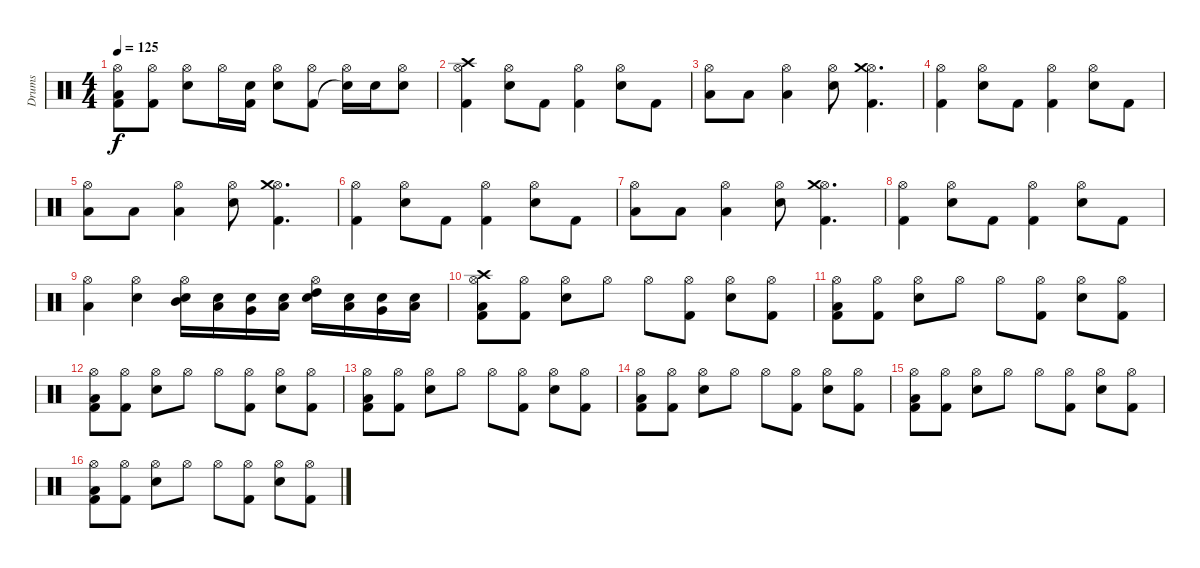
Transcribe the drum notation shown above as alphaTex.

\track ("Drums" "Drums") {instrument percussion}
\staff {score}
\articulation defaults
\ts (4 4)
\tempo 125
\clef neutral
\ks c
("Hi-Hat (open)" "Low Tom (hit)" "Kick (hit) 2").8{dy f} ("Hi-Hat (open)" "Kick (hit) 2").8 ("Hi-Hat (open)" "Snare (hit) 2").8 "Hi-Hat (open)".16 ("Snare (hit) 2" "Kick (hit) 2").16 ("Hi-Hat (open)" "Snare (hit) 2").8 ("Hi-Hat (open)" "Kick (hit) 2").8 ("Hi-Hat (open)" "Snare (hit)"{t}).16 "Snare (hit) 2".16 ("Hi-Hat (open)" "Snare (hit) 2").8 |
("Hi-Hat (open)" "Crash high (hit)" "Kick (hit) 2").4 ("Hi-Hat (open)" "Snare (hit) 2").8 "Kick (hit) 2".8 ("Hi-Hat (open)" "Kick (hit) 2").4 ("Hi-Hat (open)" "Snare (hit) 2").8 "Kick (hit) 2".8 |
("Hi-Hat (open)" "Low Tom (hit)").8 "Low Tom (hit)".8 ("Hi-Hat (open)" "Low Tom (hit)").4 ("Hi-Hat (open)" "Snare (hit) 2").8 ("Hi-Hat (open)" "Crash medium (hit)" "Kick (hit) 2").4{d} |
("Hi-Hat (open)" "Kick (hit) 2").4 ("Hi-Hat (open)" "Snare (hit) 2").8 "Kick (hit) 2".8 ("Hi-Hat (open)" "Kick (hit) 2").4 ("Hi-Hat (open)" "Snare (hit) 2").8 "Kick (hit) 2".8 |
("Hi-Hat (open)" "Low Tom (hit)").8 "Low Tom (hit)".8 ("Hi-Hat (open)" "Low Tom (hit)").4 ("Hi-Hat (open)" "Snare (hit) 2").8 ("Hi-Hat (open)" "Crash medium (hit)" "Kick (hit) 2").4{d} |
("Hi-Hat (open)" "Kick (hit) 2").4 ("Hi-Hat (open)" "Snare (hit) 2").8 "Kick (hit) 2".8 ("Hi-Hat (open)" "Kick (hit) 2").4 ("Hi-Hat (open)" "Snare (hit) 2").8 "Kick (hit) 2".8 |
("Hi-Hat (open)" "Low Tom (hit)").8 "Low Tom (hit)".8 ("Hi-Hat (open)" "Low Tom (hit)").4 ("Hi-Hat (open)" "Snare (hit) 2").8 ("Hi-Hat (open)" "Crash medium (hit)" "Kick (hit) 2").4{d} |
("Hi-Hat (open)" "Kick (hit) 2").4 ("Hi-Hat (open)" "Snare (hit) 2").8 "Kick (hit) 2".8 ("Hi-Hat (open)" "Kick (hit) 2").4 ("Hi-Hat (open)" "Snare (hit) 2").8 "Kick (hit) 2".8 |
("Hi-Hat (open)" "Low Tom (hit)").4 ("Hi-Hat (open)" "Snare (hit) 2").4 ("Hi-Hat (open)" "Electric Snare (hit)" "Mid Tom (hit)").16 ("Electric Snare (hit)" "Low Tom (hit)").16 ("Electric Snare (hit)" "Very Low Tom (hit)").16 ("Electric Snare (hit)" "Low Floor Tom (hit)").16 ("Hi-Hat (open)" "Electric Snare (hit)" "High Tom (hit)").16 ("Electric Snare (hit)" "Low Tom (hit)").16 ("Electric Snare (hit)" "Very Low Tom (hit)").16 ("Electric Snare (hit)" "Low Floor Tom (hit)").16 |
("Hi-Hat (open)" "Crash high (hit)" "Low Tom (hit)" "Kick (hit) 2").8 ("Hi-Hat (open)" "Kick (hit) 2").8 ("Hi-Hat (open)" "Snare (hit) 2").8 "Hi-Hat (open)".8 "Hi-Hat (open)".8 ("Hi-Hat (open)" "Kick (hit) 2").8 ("Hi-Hat (open)" "Snare (hit) 2").8 ("Hi-Hat (open)" "Kick (hit) 2").8 |
("Hi-Hat (open)" "Low Tom (hit)" "Kick (hit) 2").8 ("Hi-Hat (open)" "Kick (hit) 2").8 ("Hi-Hat (open)" "Snare (hit) 2").8 "Hi-Hat (open)".8 "Hi-Hat (open)".8 ("Hi-Hat (open)" "Kick (hit) 2").8 ("Hi-Hat (open)" "Snare (hit) 2").8 ("Hi-Hat (open)" "Kick (hit) 2").8 |
("Hi-Hat (open)" "Low Tom (hit)" "Kick (hit) 2").8 ("Hi-Hat (open)" "Kick (hit) 2").8 ("Hi-Hat (open)" "Snare (hit) 2").8 "Hi-Hat (open)".8 "Hi-Hat (open)".8 ("Hi-Hat (open)" "Kick (hit) 2").8 ("Hi-Hat (open)" "Snare (hit) 2").8 ("Hi-Hat (open)" "Kick (hit) 2").8 |
("Hi-Hat (open)" "Low Tom (hit)" "Kick (hit) 2").8 ("Hi-Hat (open)" "Kick (hit) 2").8 ("Hi-Hat (open)" "Snare (hit) 2").8 "Hi-Hat (open)".8 "Hi-Hat (open)".8 ("Hi-Hat (open)" "Kick (hit) 2").8 ("Hi-Hat (open)" "Snare (hit) 2").8 ("Hi-Hat (open)" "Kick (hit) 2").8 |
("Hi-Hat (open)" "Low Tom (hit)" "Kick (hit) 2").8 ("Hi-Hat (open)" "Kick (hit) 2").8 ("Hi-Hat (open)" "Snare (hit) 2").8 "Hi-Hat (open)".8 "Hi-Hat (open)".8 ("Hi-Hat (open)" "Kick (hit) 2").8 ("Hi-Hat (open)" "Snare (hit) 2").8 ("Hi-Hat (open)" "Kick (hit) 2").8 |
("Hi-Hat (open)" "Low Tom (hit)" "Kick (hit) 2").8 ("Hi-Hat (open)" "Kick (hit) 2").8 ("Hi-Hat (open)" "Snare (hit) 2").8 "Hi-Hat (open)".8 "Hi-Hat (open)".8 ("Hi-Hat (open)" "Kick (hit) 2").8 ("Hi-Hat (open)" "Snare (hit) 2").8 ("Hi-Hat (open)" "Kick (hit) 2").8 |
("Hi-Hat (open)" "Low Tom (hit)" "Kick (hit) 2").8 ("Hi-Hat (open)" "Kick (hit) 2").8 ("Hi-Hat (open)" "Snare (hit) 2").8 "Hi-Hat (open)".8 "Hi-Hat (open)".8 ("Hi-Hat (open)" "Kick (hit) 2").8 ("Hi-Hat (open)" "Snare (hit) 2").8 ("Hi-Hat (open)" "Kick (hit) 2").8
